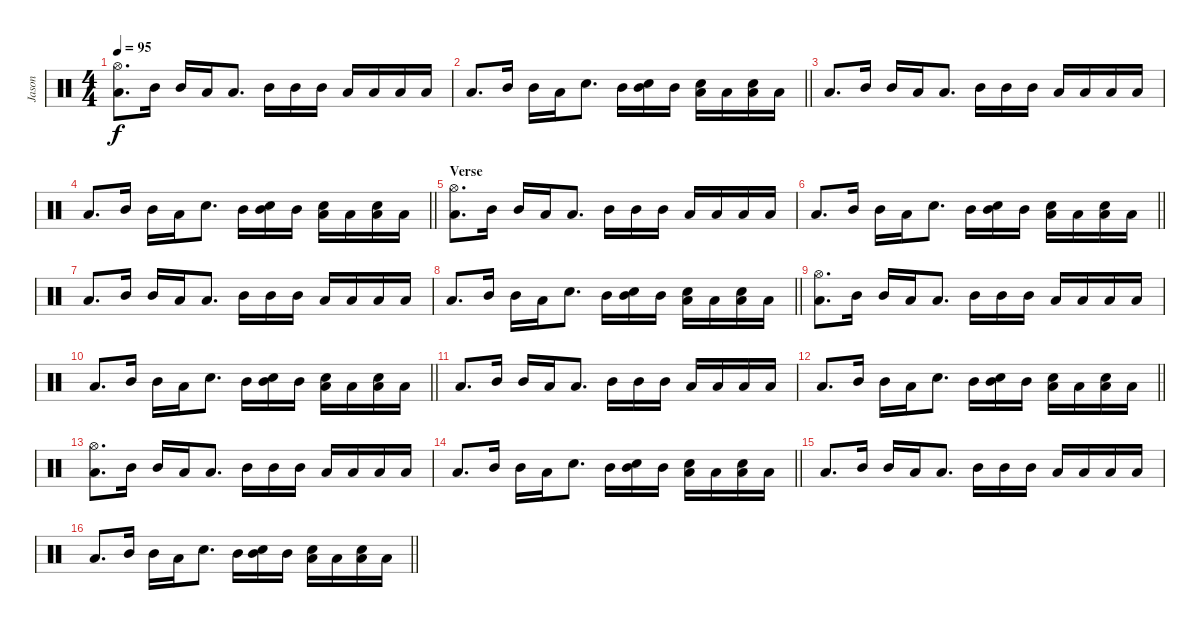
\track ("Jason" "Jason") {instrument percussion}
\staff {score}
\articulation defaults
\ts (4 4)
\tempo 95
\clef neutral
\ks c
("Hi-Hat (open)" "Low Floor Tom (hit)").8{d dy f} "Mid Tom (hit)".16 "Mid Tom (hit)".16 "Low Tom (hit)".16 "Low Floor Tom (hit)".8{d} "Mid Tom (hit)".16 "Mid Tom (hit)".16 "Mid Tom (hit)".16 "Low Tom (hit)".16 "Low Tom (hit)".16 "Low Tom (hit)".16 "Low Tom (hit)".16 |
\barLineRight lightlight "Low Floor Tom (hit)".8{d} "Mid Tom (hit)".16 "Mid Tom (hit)".16 "Low Tom (hit)".16 "Electric Snare (hit)".8{d} "Mid Tom (hit)".16
("Mid Tom (hit)" "Electric Snare (hit)").16 "Mid Tom (hit)".16 ("Low Tom (hit)" "Electric Snare (hit)").16 "Low Tom (hit)".16 ("Low Tom (hit)" "Electric Snare (hit)").16 "Low Tom (hit)".16 |
"Low Floor Tom (hit)".8{d} "Mid Tom (hit)".16 "Mid Tom (hit)".16 "Low Tom (hit)".16 "Low Floor Tom (hit)".8{d} "Mid Tom (hit)".16 "Mid Tom (hit)".16 "Mid Tom (hit)".16 "Low Tom (hit)".16 "Low Tom (hit)".16 "Low Tom (hit)".16 "Low Tom (hit)".16 |
\barLineRight lightlight "Low Floor Tom (hit)".8{d} "Mid Tom (hit)".16 "Mid Tom (hit)".16 "Low Tom (hit)".16 "Electric Snare (hit)".8{d} "Mid Tom (hit)".16
("Mid Tom (hit)" "Electric Snare (hit)").16 "Mid Tom (hit)".16 ("Low Tom (hit)" "Electric Snare (hit)").16 "Low Tom (hit)".16 ("Low Tom (hit)" "Electric Snare (hit)").16 "Low Tom (hit)".16 |
\section ("" "Verse")
("Hi-Hat (open)" "Low Floor Tom (hit)").8{d} "Mid Tom (hit)".16 "Mid Tom (hit)".16 "Low Tom (hit)".16 "Low Floor Tom (hit)".8{d} "Mid Tom (hit)".16 "Mid Tom (hit)".16 "Mid Tom (hit)".16 "Low Tom (hit)".16 "Low Tom (hit)".16 "Low Tom (hit)".16 "Low Tom (hit)".16 |
\barLineRight lightlight "Low Floor Tom (hit)".8{d} "Mid Tom (hit)".16 "Mid Tom (hit)".16 "Low Tom (hit)".16 "Electric Snare (hit)".8{d} "Mid Tom (hit)".16
("Mid Tom (hit)" "Electric Snare (hit)").16 "Mid Tom (hit)".16 ("Low Tom (hit)" "Electric Snare (hit)").16 "Low Tom (hit)".16 ("Low Tom (hit)" "Electric Snare (hit)").16 "Low Tom (hit)".16 |
"Low Floor Tom (hit)".8{d} "Mid Tom (hit)".16 "Mid Tom (hit)".16 "Low Tom (hit)".16 "Low Floor Tom (hit)".8{d} "Mid Tom (hit)".16 "Mid Tom (hit)".16 "Mid Tom (hit)".16 "Low Tom (hit)".16 "Low Tom (hit)".16 "Low Tom (hit)".16 "Low Tom (hit)".16 |
\barLineRight lightlight "Low Floor Tom (hit)".8{d} "Mid Tom (hit)".16 "Mid Tom (hit)".16 "Low Tom (hit)".16 "Electric Snare (hit)".8{d} "Mid Tom (hit)".16
("Mid Tom (hit)" "Electric Snare (hit)").16 "Mid Tom (hit)".16 ("Low Tom (hit)" "Electric Snare (hit)").16 "Low Tom (hit)".16 ("Low Tom (hit)" "Electric Snare (hit)").16 "Low Tom (hit)".16 |
("Hi-Hat (open)" "Low Floor Tom (hit)").8{d} "Mid Tom (hit)".16 "Mid Tom (hit)".16 "Low Tom (hit)".16 "Low Floor Tom (hit)".8{d} "Mid Tom (hit)".16 "Mid Tom (hit)".16 "Mid Tom (hit)".16 "Low Tom (hit)".16 "Low Tom (hit)".16 "Low Tom (hit)".16 "Low Tom (hit)".16 |
\barLineRight lightlight "Low Floor Tom (hit)".8{d} "Mid Tom (hit)".16 "Mid Tom (hit)".16 "Low Tom (hit)".16 "Electric Snare (hit)".8{d} "Mid Tom (hit)".16
("Mid Tom (hit)" "Electric Snare (hit)").16 "Mid Tom (hit)".16 ("Low Tom (hit)" "Electric Snare (hit)").16 "Low Tom (hit)".16 ("Low Tom (hit)" "Electric Snare (hit)").16 "Low Tom (hit)".16 |
"Low Floor Tom (hit)".8{d} "Mid Tom (hit)".16 "Mid Tom (hit)".16 "Low Tom (hit)".16 "Low Floor Tom (hit)".8{d} "Mid Tom (hit)".16 "Mid Tom (hit)".16 "Mid Tom (hit)".16 "Low Tom (hit)".16 "Low Tom (hit)".16 "Low Tom (hit)".16 "Low Tom (hit)".16 |
\barLineRight lightlight "Low Floor Tom (hit)".8{d} "Mid Tom (hit)".16 "Mid Tom (hit)".16 "Low Tom (hit)".16 "Electric Snare (hit)".8{d} "Mid Tom (hit)".16
("Mid Tom (hit)" "Electric Snare (hit)").16 "Mid Tom (hit)".16 ("Low Tom (hit)" "Electric Snare (hit)").16 "Low Tom (hit)".16 ("Low Tom (hit)" "Electric Snare (hit)").16 "Low Tom (hit)".16 |
("Hi-Hat (open)" "Low Floor Tom (hit)").8{d} "Mid Tom (hit)".16 "Mid Tom (hit)".16 "Low Tom (hit)".16 "Low Floor Tom (hit)".8{d} "Mid Tom (hit)".16 "Mid Tom (hit)".16 "Mid Tom (hit)".16 "Low Tom (hit)".16 "Low Tom (hit)".16 "Low Tom (hit)".16 "Low Tom (hit)".16 |
\barLineRight lightlight "Low Floor Tom (hit)".8{d} "Mid Tom (hit)".16 "Mid Tom (hit)".16 "Low Tom (hit)".16 "Electric Snare (hit)".8{d} "Mid Tom (hit)".16
("Mid Tom (hit)" "Electric Snare (hit)").16 "Mid Tom (hit)".16 ("Low Tom (hit)" "Electric Snare (hit)").16 "Low Tom (hit)".16 ("Low Tom (hit)" "Electric Snare (hit)").16 "Low Tom (hit)".16 |
"Low Floor Tom (hit)".8{d} "Mid Tom (hit)".16 "Mid Tom (hit)".16 "Low Tom (hit)".16 "Low Floor Tom (hit)".8{d} "Mid Tom (hit)".16 "Mid Tom (hit)".16 "Mid Tom (hit)".16 "Low Tom (hit)".16 "Low Tom (hit)".16 "Low Tom (hit)".16 "Low Tom (hit)".16 |
\barLineRight lightlight "Low Floor Tom (hit)".8{d} "Mid Tom (hit)".16 "Mid Tom (hit)".16 "Low Tom (hit)".16 "Electric Snare (hit)".8{d} "Mid Tom (hit)".16
("Mid Tom (hit)" "Electric Snare (hit)").16 "Mid Tom (hit)".16 ("Low Tom (hit)" "Electric Snare (hit)").16 "Low Tom (hit)".16 ("Low Tom (hit)" "Electric Snare (hit)").16 "Low Tom (hit)".16
